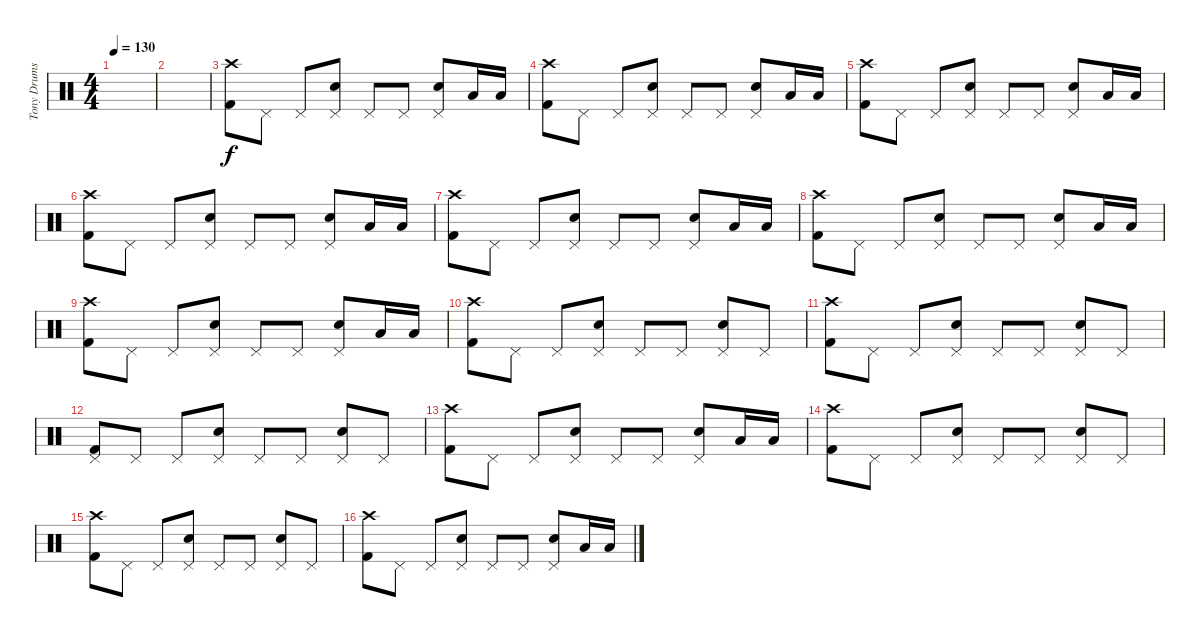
\track ("Tony Drums" "Tony Drums") {instrument percussion}
\staff {score}
\articulation defaults
\ts (4 4)
\tempo 130
\clef neutral
\ks c
|
|
("Crash high (hit)" "Kick (hit) 2").8 "Pedal Hi-Hat (hit)".8 "Pedal Hi-Hat (hit)".8 ("Pedal Hi-Hat (hit)" "Snare (hit) 2").8 "Pedal Hi-Hat (hit)".8 "Pedal Hi-Hat (hit)".8 ("Pedal Hi-Hat (hit)" "Snare (hit) 2").8 "Low Tom (hit)".16 "Low Tom (hit)".16 |
("Crash high (hit)" "Kick (hit) 2").8 "Pedal Hi-Hat (hit)".8 "Pedal Hi-Hat (hit)".8 ("Pedal Hi-Hat (hit)" "Snare (hit) 2").8 "Pedal Hi-Hat (hit)".8 "Pedal Hi-Hat (hit)".8 ("Pedal Hi-Hat (hit)" "Snare (hit) 2").8 "Low Tom (hit)".16 "Low Tom (hit)".16 |
("Crash high (hit)" "Kick (hit) 2").8 "Pedal Hi-Hat (hit)".8 "Pedal Hi-Hat (hit)".8 ("Pedal Hi-Hat (hit)" "Snare (hit) 2").8 "Pedal Hi-Hat (hit)".8 "Pedal Hi-Hat (hit)".8 ("Pedal Hi-Hat (hit)" "Snare (hit) 2").8 "Low Tom (hit)".16 "Low Tom (hit)".16 |
("Crash high (hit)" "Kick (hit) 2").8 "Pedal Hi-Hat (hit)".8 "Pedal Hi-Hat (hit)".8 ("Pedal Hi-Hat (hit)" "Snare (hit) 2").8 "Pedal Hi-Hat (hit)".8 "Pedal Hi-Hat (hit)".8 ("Pedal Hi-Hat (hit)" "Snare (hit) 2").8 "Low Tom (hit)".16 "Low Tom (hit)".16 |
("Crash high (hit)" "Kick (hit) 2").8 "Pedal Hi-Hat (hit)".8 "Pedal Hi-Hat (hit)".8 ("Pedal Hi-Hat (hit)" "Snare (hit) 2").8 "Pedal Hi-Hat (hit)".8 "Pedal Hi-Hat (hit)".8 ("Pedal Hi-Hat (hit)" "Snare (hit) 2").8 "Low Tom (hit)".16 "Low Tom (hit)".16 |
("Crash high (hit)" "Kick (hit) 2").8 "Pedal Hi-Hat (hit)".8 "Pedal Hi-Hat (hit)".8 ("Pedal Hi-Hat (hit)" "Snare (hit) 2").8 "Pedal Hi-Hat (hit)".8 "Pedal Hi-Hat (hit)".8 ("Pedal Hi-Hat (hit)" "Snare (hit) 2").8 "Low Tom (hit)".16 "Low Tom (hit)".16 |
("Crash high (hit)" "Kick (hit) 2").8 "Pedal Hi-Hat (hit)".8 "Pedal Hi-Hat (hit)".8 ("Pedal Hi-Hat (hit)" "Snare (hit) 2").8 "Pedal Hi-Hat (hit)".8 "Pedal Hi-Hat (hit)".8 ("Pedal Hi-Hat (hit)" "Snare (hit) 2").8 "Low Tom (hit)".16 "Low Tom (hit)".16 |
("Crash high (hit)" "Kick (hit) 2").8 "Pedal Hi-Hat (hit)".8 "Pedal Hi-Hat (hit)".8 ("Pedal Hi-Hat (hit)" "Snare (hit) 2").8 "Pedal Hi-Hat (hit)".8 "Pedal Hi-Hat (hit)".8 ("Pedal Hi-Hat (hit)" "Snare (hit) 2").8 "Pedal Hi-Hat (hit)".8 |
("Crash high (hit)" "Kick (hit) 2").8 "Pedal Hi-Hat (hit)".8 "Pedal Hi-Hat (hit)".8 ("Pedal Hi-Hat (hit)" "Snare (hit) 2").8 "Pedal Hi-Hat (hit)".8 "Pedal Hi-Hat (hit)".8 ("Pedal Hi-Hat (hit)" "Snare (hit) 2").8 "Pedal Hi-Hat (hit)".8 |
("Pedal Hi-Hat (hit)" "Kick (hit) 2").8 "Pedal Hi-Hat (hit)".8 "Pedal Hi-Hat (hit)".8 ("Pedal Hi-Hat (hit)" "Snare (hit) 2").8 "Pedal Hi-Hat (hit)".8 "Pedal Hi-Hat (hit)".8 ("Pedal Hi-Hat (hit)" "Snare (hit) 2").8 "Pedal Hi-Hat (hit)".8 |
("Crash high (hit)" "Kick (hit) 2").8 "Pedal Hi-Hat (hit)".8 "Pedal Hi-Hat (hit)".8 ("Pedal Hi-Hat (hit)" "Snare (hit) 2").8 "Pedal Hi-Hat (hit)".8 "Pedal Hi-Hat (hit)".8 ("Pedal Hi-Hat (hit)" "Snare (hit) 2").8 "Low Tom (hit)".16 "Low Tom (hit)".16 |
("Crash high (hit)" "Kick (hit) 2").8 "Pedal Hi-Hat (hit)".8 "Pedal Hi-Hat (hit)".8 ("Pedal Hi-Hat (hit)" "Snare (hit) 2").8 "Pedal Hi-Hat (hit)".8 "Pedal Hi-Hat (hit)".8 ("Pedal Hi-Hat (hit)" "Snare (hit) 2").8 "Pedal Hi-Hat (hit)".8 |
("Crash high (hit)" "Kick (hit) 2").8 "Pedal Hi-Hat (hit)".8 "Pedal Hi-Hat (hit)".8 ("Pedal Hi-Hat (hit)" "Snare (hit) 2").8 "Pedal Hi-Hat (hit)".8 "Pedal Hi-Hat (hit)".8 ("Pedal Hi-Hat (hit)" "Snare (hit) 2").8 "Pedal Hi-Hat (hit)".8 |
("Crash high (hit)" "Kick (hit) 2").8 "Pedal Hi-Hat (hit)".8 "Pedal Hi-Hat (hit)".8 ("Pedal Hi-Hat (hit)" "Snare (hit) 2").8 "Pedal Hi-Hat (hit)".8 "Pedal Hi-Hat (hit)".8 ("Pedal Hi-Hat (hit)" "Snare (hit) 2").8 "Low Tom (hit)".16 "Low Tom (hit)".16
